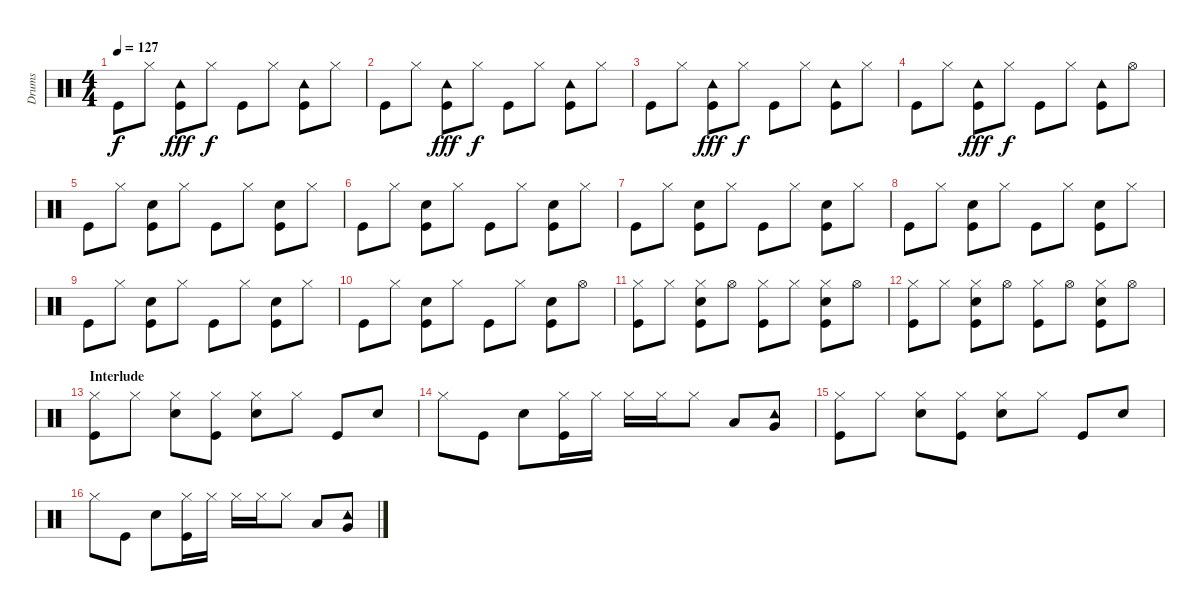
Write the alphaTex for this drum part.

\track ("Drums" "Drums") {instrument percussion}
\staff {score}
\articulation defaults
\ts (4 4)
\tempo 127
\clef neutral
\ks c "Kick (hit)".8{dy f} "Hi-Hat (closed)".8
("Tambourine (hit)" "Kick (hit)").8{dy fff} "Hi-Hat (closed)".8{dy f} "Kick (hit)".8 "Hi-Hat (closed)".8 ("Tambourine (hit)" "Kick (hit)").8 "Hi-Hat (closed)".8 |
"Kick (hit)".8 "Hi-Hat (closed)".8 ("Tambourine (hit)" "Kick (hit)").8{dy fff} "Hi-Hat (closed)".8{dy f} "Kick (hit)".8 "Hi-Hat (closed)".8 ("Tambourine (hit)" "Kick (hit)").8 "Hi-Hat (closed)".8 |
"Kick (hit)".8 "Hi-Hat (closed)".8 ("Tambourine (hit)" "Kick (hit)").8{dy fff} "Hi-Hat (closed)".8{dy f} "Kick (hit)".8 "Hi-Hat (closed)".8 ("Tambourine (hit)" "Kick (hit)").8 "Hi-Hat (closed)".8 |
"Kick (hit)".8 "Hi-Hat (closed)".8 ("Tambourine (hit)" "Kick (hit)").8{dy fff} "Hi-Hat (closed)".8{dy f} "Kick (hit)".8 "Hi-Hat (closed)".8 ("Tambourine (hit)" "Kick (hit)").8 "Hi-Hat (open)".8 |
"Kick (hit)".8 "Hi-Hat (closed)".8 ("Snare (hit) 2" "Kick (hit)").8 "Hi-Hat (closed)".8 "Kick (hit)".8 "Hi-Hat (closed)".8 ("Snare (hit) 2" "Kick (hit)").8 "Hi-Hat (closed)".8 |
"Kick (hit)".8 "Hi-Hat (closed)".8 ("Snare (hit) 2" "Kick (hit)").8 "Hi-Hat (closed)".8 "Kick (hit)".8 "Hi-Hat (closed)".8 ("Snare (hit) 2" "Kick (hit)").8 "Hi-Hat (closed)".8 |
"Kick (hit)".8 "Hi-Hat (closed)".8 ("Snare (hit) 2" "Kick (hit)").8 "Hi-Hat (closed)".8 "Kick (hit)".8 "Hi-Hat (closed)".8 ("Snare (hit) 2" "Kick (hit)").8 "Hi-Hat (closed)".8 |
"Kick (hit)".8 "Hi-Hat (closed)".8 ("Snare (hit) 2" "Kick (hit)").8 "Hi-Hat (closed)".8 "Kick (hit)".8 "Hi-Hat (closed)".8 ("Snare (hit) 2" "Kick (hit)").8 "Hi-Hat (closed)".8 |
"Kick (hit)".8 "Hi-Hat (closed)".8 ("Snare (hit) 2" "Kick (hit)").8 "Hi-Hat (closed)".8 "Kick (hit)".8 "Hi-Hat (closed)".8 ("Snare (hit) 2" "Kick (hit)").8 "Hi-Hat (closed)".8 |
"Kick (hit)".8 "Hi-Hat (closed)".8 ("Snare (hit) 2" "Kick (hit)").8 "Hi-Hat (closed)".8 "Kick (hit)".8 "Hi-Hat (closed)".8 ("Snare (hit) 2" "Kick (hit)").8 "Hi-Hat (open)".8 |
("Hi-Hat (closed)" "Kick (hit)").8 "Hi-Hat (closed)".8 ("Hi-Hat (closed)" "Snare (hit) 2" "Kick (hit)").8 "Hi-Hat (open)".8 ("Hi-Hat (closed)" "Kick (hit)").8 "Hi-Hat (closed)".8 ("Hi-Hat (closed)" "Snare (hit) 2" "Kick (hit)").8 "Hi-Hat (open)".8 |
("Hi-Hat (closed)" "Kick (hit)").8 "Hi-Hat (closed)".8 ("Hi-Hat (closed)" "Snare (hit) 2" "Kick (hit)").8 "Hi-Hat (open)".8 ("Hi-Hat (closed)" "Kick (hit)").8 "Hi-Hat (open)".8 ("Hi-Hat (closed)" "Snare (hit) 2" "Kick (hit)").8 "Hi-Hat (open)".8 |
\section ("" "Interlude")
("Hi-Hat (closed)" "Kick (hit)").8 "Hi-Hat (closed)".8 ("Hi-Hat (closed)" "Snare (hit) 2").8 ("Hi-Hat (closed)" "Kick (hit)").8 ("Hi-Hat (closed)" "Snare (hit) 2").8 "Hi-Hat (closed)".8 "Kick (hit)".8 "Snare (hit) 2".8 |
"Hi-Hat (closed)".8 "Kick (hit)".8 "Snare (hit) 2".8 ("Hi-Hat (closed)" "Kick (hit)").16 "Hi-Hat (closed)".16 "Hi-Hat (closed)".16 "Hi-Hat (closed)".16 "Hi-Hat (closed)".8 "Low Tom (hit)".8 ("Tambourine (hit)" "Very Low Tom (hit)").8 |
("Hi-Hat (closed)" "Kick (hit)").8 "Hi-Hat (closed)".8 ("Hi-Hat (closed)" "Snare (hit) 2").8 ("Hi-Hat (closed)" "Kick (hit)").8 ("Hi-Hat (closed)" "Snare (hit) 2").8 "Hi-Hat (closed)".8 "Kick (hit)".8 "Snare (hit) 2".8 |
"Hi-Hat (closed)".8 "Kick (hit)".8 "Snare (hit) 2".8 ("Hi-Hat (closed)" "Kick (hit)").16 "Hi-Hat (closed)".16 "Hi-Hat (closed)".16 "Hi-Hat (closed)".16 "Hi-Hat (closed)".8 "Low Tom (hit)".8 ("Tambourine (hit)" "Very Low Tom (hit)").8
